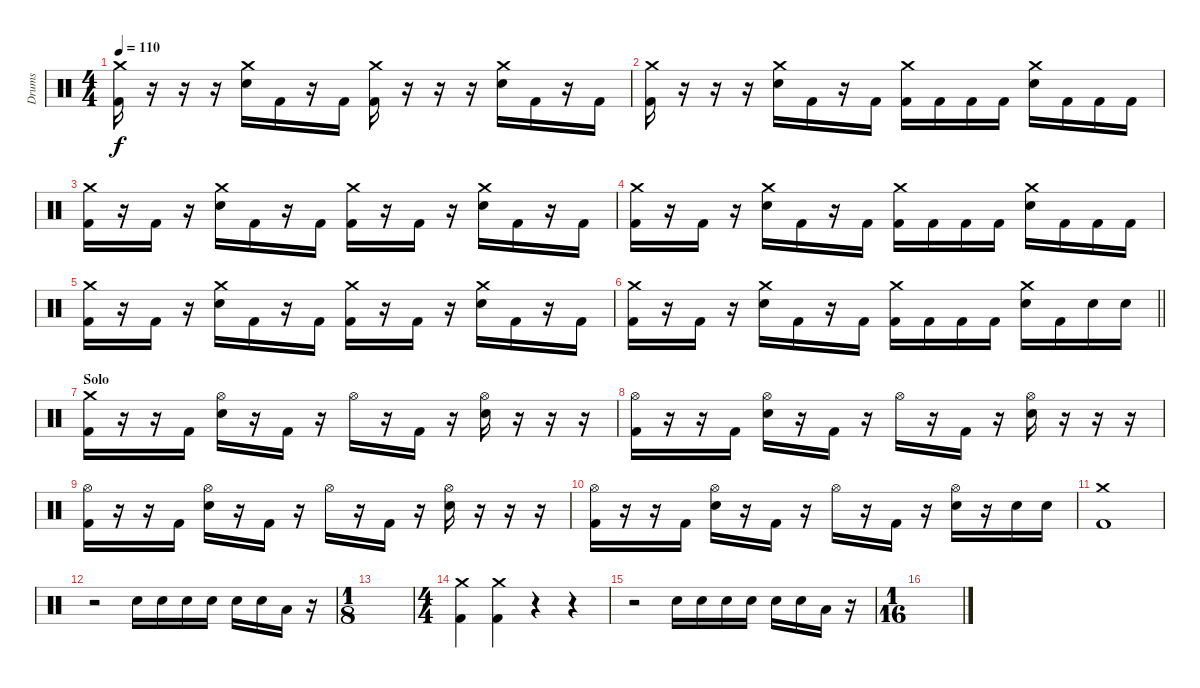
\track ("Drums" "Drums") {instrument percussion}
\staff {score}
\articulation defaults
\ts (4 4)
\tempo 110
\clef neutral
\ks c
("Crash medium (hit)" "Kick (hit) 2").16{dy f} r.16 r.16 r.16 ("Crash medium (hit)" "Electric Snare (hit)").16 "Kick (hit) 2".16 r.16 "Kick (hit) 2".16 ("Crash medium (hit)" "Kick (hit) 2").16 r.16 r.16 r.16 ("Crash medium (hit)" "Electric Snare (hit)").16 "Kick (hit) 2".16 r.16 "Kick (hit) 2".16 |
("Crash medium (hit)" "Kick (hit) 2").16 r.16 r.16 r.16 ("Crash medium (hit)" "Electric Snare (hit)").16 "Kick (hit) 2".16 r.16 "Kick (hit) 2".16 ("Crash medium (hit)" "Kick (hit) 2").16 "Kick (hit) 2".16 "Kick (hit) 2".16 "Kick (hit) 2".16 ("Crash medium (hit)" "Electric Snare (hit)").16 "Kick (hit) 2".16 "Kick (hit) 2".16 "Kick (hit) 2".16 |
("Crash medium (hit)" "Kick (hit) 2").16 r.16 "Kick (hit) 2".16 r.16 ("Crash medium (hit)" "Electric Snare (hit)").16 "Kick (hit) 2".16 r.16 "Kick (hit) 2".16 ("Crash medium (hit)" "Kick (hit) 2").16 r.16 "Kick (hit) 2".16 r.16 ("Crash medium (hit)" "Electric Snare (hit)").16 "Kick (hit) 2".16 r.16 "Kick (hit) 2".16 |
("Crash medium (hit)" "Kick (hit) 2").16 r.16 "Kick (hit) 2".16 r.16 ("Crash medium (hit)" "Electric Snare (hit)").16 "Kick (hit) 2".16 r.16 "Kick (hit) 2".16 ("Crash medium (hit)" "Kick (hit) 2").16 "Kick (hit) 2".16 "Kick (hit) 2".16 "Kick (hit) 2".16 ("Crash medium (hit)" "Electric Snare (hit)").16 "Kick (hit) 2".16 "Kick (hit) 2".16 "Kick (hit) 2".16 |
("Crash medium (hit)" "Kick (hit) 2").16 r.16 "Kick (hit) 2".16 r.16 ("Crash medium (hit)" "Electric Snare (hit)").16 "Kick (hit) 2".16 r.16 "Kick (hit) 2".16 ("Crash medium (hit)" "Kick (hit) 2").16 r.16 "Kick (hit) 2".16 r.16 ("Crash medium (hit)" "Electric Snare (hit)").16 "Kick (hit) 2".16 r.16 "Kick (hit) 2".16 |
\barLineRight lightlight
("Crash medium (hit)" "Kick (hit) 2").16 r.16 "Kick (hit) 2".16 r.16 ("Crash medium (hit)" "Electric Snare (hit)").16 "Kick (hit) 2".16 r.16 "Kick (hit) 2".16 ("Crash medium (hit)" "Kick (hit) 2").16 "Kick (hit) 2".16 "Kick (hit) 2".16 "Kick (hit) 2".16 ("Crash medium (hit)" "Electric Snare (hit)").16 "Kick (hit) 2".16 "Electric Snare (hit)".16 "Electric Snare (hit)".16 |
\section ("" "Solo")
("Crash medium (hit)" "Kick (hit) 2").16 r.16 r.16 "Kick (hit) 2".16 ("Hi-Hat (open)" "Electric Snare (hit)").16 r.16 "Kick (hit) 2".16 r.16 "Hi-Hat (open)".16 r.16 "Kick (hit) 2".16 r.16 ("Hi-Hat (open)" "Electric Snare (hit)").16 r.16 r.16 r.16 |
("Hi-Hat (open)" "Kick (hit) 2").16 r.16 r.16 "Kick (hit) 2".16 ("Hi-Hat (open)" "Electric Snare (hit)").16 r.16 "Kick (hit) 2".16 r.16 "Hi-Hat (open)".16 r.16 "Kick (hit) 2".16 r.16 ("Hi-Hat (open)" "Electric Snare (hit)").16 r.16 r.16 r.16 |
("Hi-Hat (open)" "Kick (hit) 2").16 r.16 r.16 "Kick (hit) 2".16 ("Hi-Hat (open)" "Electric Snare (hit)").16 r.16 "Kick (hit) 2".16 r.16 "Hi-Hat (open)".16 r.16 "Kick (hit) 2".16 r.16 ("Hi-Hat (open)" "Electric Snare (hit)").16 r.16 r.16 r.16 |
("Hi-Hat (open)" "Kick (hit) 2").16 r.16 r.16 "Kick (hit) 2".16 ("Hi-Hat (open)" "Electric Snare (hit)").16 r.16 "Kick (hit) 2".16 r.16 "Hi-Hat (open)".16 r.16 "Kick (hit) 2".16 r.16 ("Hi-Hat (open)" "Electric Snare (hit)").16 r.16 "Electric Snare (hit)".16 "Electric Snare (hit)".16 |
("Crash medium (hit)" "Kick (hit) 2").1 |
r.2 "Electric Snare (hit)".16 "Electric Snare (hit)".16 "Electric Snare (hit)".16 "Electric Snare (hit)".16 "Electric Snare (hit)".16 "Electric Snare (hit)".16 "Low Tom (hit)".16 r.16 |
\ts (1 8)
|
\ts (4 4)
("Crash medium (hit)" "Kick (hit) 2").4 ("Crash medium (hit)" "Kick (hit) 2").4 r.4 r.4 |
r.2 "Electric Snare (hit)".16 "Electric Snare (hit)".16 "Electric Snare (hit)".16 "Electric Snare (hit)".16 "Electric Snare (hit)".16 "Electric Snare (hit)".16 "Low Tom (hit)".16 r.16 |
\ts (1 16)
